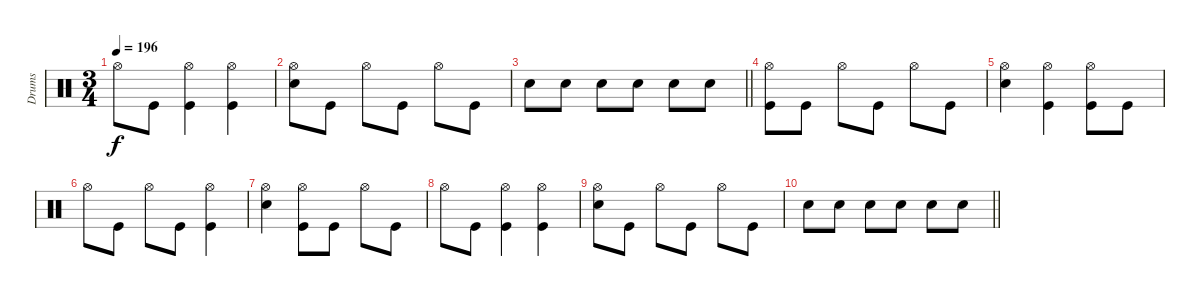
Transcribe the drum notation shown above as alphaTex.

\track ("Drums" "Drums") {instrument percussion}
\staff
\articulation defaults
\ts (3 4)
\tempo 196
\clef neutral
\ks c "Hi-Hat (open)".8{dy f} "Kick (hit)".8
("Hi-Hat (open)" "Kick (hit)").4 ("Hi-Hat (open)" "Kick (hit)").4 |
("Hi-Hat (open)" "Electric Snare (hit)").8 "Kick (hit)".8 "Hi-Hat (open)".8 "Kick (hit)".8 "Hi-Hat (open)".8 "Kick (hit)".8 |
\barLineRight lightlight "Electric Snare (hit)".8 "Electric Snare (hit)".8 "Electric Snare (hit)".8 "Electric Snare (hit)".8 "Electric Snare (hit)".8 "Electric Snare (hit)".8
|
("Hi-Hat (open)" "Kick (hit)").8 "Kick (hit)".8 "Hi-Hat (open)".8 "Kick (hit)".8 "Hi-Hat (open)".8 "Kick (hit)".8 |
("Hi-Hat (open)" "Electric Snare (hit)").4 ("Hi-Hat (open)" "Kick (hit)").4 ("Hi-Hat (open)" "Kick (hit)").8 "Kick (hit)".8 |
"Hi-Hat (open)".8 "Kick (hit)".8 "Hi-Hat (open)".8 "Kick (hit)".8 ("Hi-Hat (open)" "Kick (hit)").4 |
("Hi-Hat (open)" "Electric Snare (hit)").4 ("Hi-Hat (open)" "Kick (hit)").8 "Kick (hit)".8 "Hi-Hat (open)".8 "Kick (hit)".8 |
"Hi-Hat (open)".8 "Kick (hit)".8 ("Hi-Hat (open)" "Kick (hit)").4 ("Hi-Hat (open)" "Kick (hit)").4 |
("Hi-Hat (open)" "Electric Snare (hit)").8 "Kick (hit)".8 "Hi-Hat (open)".8 "Kick (hit)".8 "Hi-Hat (open)".8 "Kick (hit)".8 |
\barLineRight lightlight "Electric Snare (hit)".8 "Electric Snare (hit)".8 "Electric Snare (hit)".8 "Electric Snare (hit)".8 "Electric Snare (hit)".8 "Electric Snare (hit)".8
